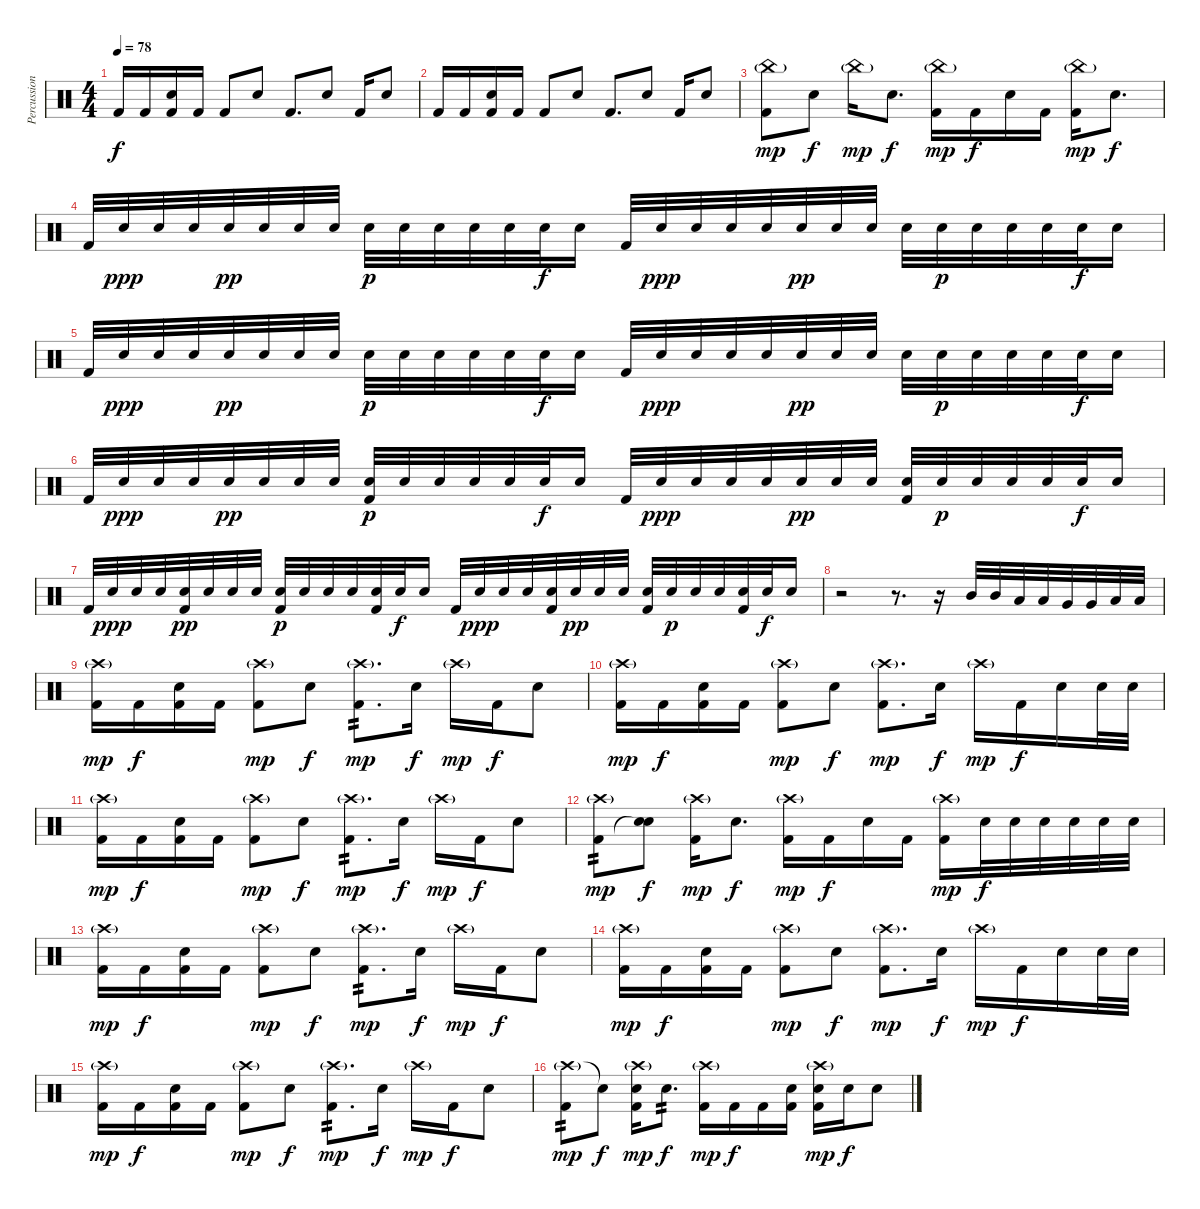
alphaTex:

\track ("Percussions" "Percussion") {instrument percussion}
\staff {score}
\articulation defaults
\ts (4 4)
\tempo 78
\clef neutral
\ks c "Kick (hit) 2".16{dy f} "Kick (hit) 2".16
("Snare (hit) 2" "Kick (hit) 2").16 "Kick (hit) 2".16 "Kick (hit) 2".8 "Snare (hit) 2".8 "Kick (hit) 2".8{d} "Snare (hit) 2".8 "Kick (hit) 2".16 "Snare (hit) 2".8 |
"Kick (hit) 2".16 "Kick (hit) 2".16 ("Snare (hit) 2" "Kick (hit) 2").16 "Kick (hit) 2".16 "Kick (hit) 2".8 "Snare (hit) 2".8 "Kick (hit) 2".8{d} "Snare (hit) 2".8 "Kick (hit) 2".16 "Snare (hit) 2".8 |
("China (hit)"{g} "Kick (hit) 2").8{dy mp} "Snare (hit) 2".8{dy f} "China (hit)"{g}.16{dy mp} "Snare (hit) 2".8{d dy f} ("China (hit)"{g} "Kick (hit) 2").16{dy mp} "Kick (hit) 2".16{dy f} "Snare (hit) 2".16 "Kick (hit) 2".16 ("China (hit)"{g} "Kick (hit) 2").16{dy mp} "Snare (hit) 2".8{d dy f} |
"Kick (hit) 2".32 "Snare (hit) 2".32{dy ppp} "Snare (hit) 2".32 "Snare (hit) 2".32 "Snare (hit) 2".32{dy pp} "Snare (hit) 2".32 "Snare (hit) 2".32 "Snare (hit) 2".32 "Snare (hit) 2".32{dy p} "Snare (hit) 2".32 "Snare (hit) 2".32 "Snare (hit) 2".32 "Snare (hit) 2".32 "Snare (hit) 2".32{dy f} "Snare (hit) 2".16 "Kick (hit) 2".32 "Snare (hit) 2".32{dy ppp} "Snare (hit) 2".32 "Snare (hit) 2".32 "Snare (hit) 2".32 "Snare (hit) 2".32{dy pp} "Snare (hit) 2".32 "Snare (hit) 2".32 "Snare (hit) 2".32 "Snare (hit) 2".32{dy p} "Snare (hit) 2".32 "Snare (hit) 2".32 "Snare (hit) 2".32 "Snare (hit) 2".32{dy f} "Snare (hit) 2".16 |
"Kick (hit) 2".32 "Snare (hit) 2".32{dy ppp} "Snare (hit) 2".32 "Snare (hit) 2".32 "Snare (hit) 2".32{dy pp} "Snare (hit) 2".32 "Snare (hit) 2".32 "Snare (hit) 2".32 "Snare (hit) 2".32{dy p} "Snare (hit) 2".32 "Snare (hit) 2".32 "Snare (hit) 2".32 "Snare (hit) 2".32 "Snare (hit) 2".32{dy f} "Snare (hit) 2".16 "Kick (hit) 2".32 "Snare (hit) 2".32{dy ppp} "Snare (hit) 2".32 "Snare (hit) 2".32 "Snare (hit) 2".32 "Snare (hit) 2".32{dy pp} "Snare (hit) 2".32 "Snare (hit) 2".32 "Snare (hit) 2".32 "Snare (hit) 2".32{dy p} "Snare (hit) 2".32 "Snare (hit) 2".32 "Snare (hit) 2".32 "Snare (hit) 2".32{dy f} "Snare (hit) 2".16 |
"Kick (hit) 2".32 "Snare (hit) 2".32{dy ppp} "Snare (hit) 2".32 "Snare (hit) 2".32 "Snare (hit) 2".32{dy pp} "Snare (hit) 2".32 "Snare (hit) 2".32 "Snare (hit) 2".32 ("Snare (hit) 2" "Kick (hit) 2").32{dy p} "Snare (hit) 2".32 "Snare (hit) 2".32 "Snare (hit) 2".32 "Snare (hit) 2".32 "Snare (hit) 2".32{dy f} "Snare (hit) 2".16 "Kick (hit) 2".32 "Snare (hit) 2".32{dy ppp} "Snare (hit) 2".32 "Snare (hit) 2".32 "Snare (hit) 2".32 "Snare (hit) 2".32{dy pp} "Snare (hit) 2".32 "Snare (hit) 2".32 ("Snare (hit) 2" "Kick (hit) 2").32 "Snare (hit) 2".32{dy p} "Snare (hit) 2".32 "Snare (hit) 2".32 "Snare (hit) 2".32 "Snare (hit) 2".32{dy f} "Snare (hit) 2".16 |
"Kick (hit) 2".32 "Snare (hit) 2".32{dy ppp} "Snare (hit) 2".32 "Snare (hit) 2".32 ("Snare (hit) 2" "Kick (hit) 2").32{dy pp} "Snare (hit) 2".32 "Snare (hit) 2".32 "Snare (hit) 2".32 ("Snare (hit) 2" "Kick (hit) 2").32{dy p} "Snare (hit) 2".32 "Snare (hit) 2".32 "Snare (hit) 2".32 ("Snare (hit) 2" "Kick (hit) 2").32 "Snare (hit) 2".32{dy f} "Snare (hit) 2".16 "Kick (hit) 2".32 "Snare (hit) 2".32{dy ppp} "Snare (hit) 2".32 "Snare (hit) 2".32 ("Snare (hit) 2" "Kick (hit) 2").32 "Snare (hit) 2".32{dy pp} "Snare (hit) 2".32 "Snare (hit) 2".32 ("Snare (hit) 2" "Kick (hit) 2").32 "Snare (hit) 2".32{dy p} "Snare (hit) 2".32 "Snare (hit) 2".32 ("Snare (hit) 2" "Kick (hit) 2").32 "Snare (hit) 2".32{dy f} "Snare (hit) 2".16 |
r.2 r.8{d} r.16 "Mid Tom (hit)".32 "Mid Tom (hit)".32 "Low Tom (hit)".32 "Low Tom (hit)".32 "Very Low Tom (hit)".32 "Very Low Tom (hit)".32 "Low Floor Tom (hit)".32 "Low Floor Tom (hit)".32 |
("Crash high (hit)"{g} "Kick (hit) 2").16{dy mp} "Kick (hit) 2".16{dy f} ("Snare (hit) 2" "Kick (hit) 2").16 "Kick (hit) 2".16 ("Crash high (hit)"{g} "Kick (hit) 2").8{dy mp} "Snare (hit) 2".8{dy f} ("Crash high (hit)"{g} "Kick (hit) 2").8{d tp 2 dy mp} "Snare (hit) 2".16{dy f} "Crash high (hit)"{g}.16{dy mp} "Kick (hit) 2".16{dy f} "Snare (hit) 2".8 |
("Crash high (hit)"{g} "Kick (hit) 2").16{dy mp} "Kick (hit) 2".16{dy f} ("Snare (hit) 2" "Kick (hit) 2").16 "Kick (hit) 2".16 ("Crash high (hit)"{g} "Kick (hit) 2").8{dy mp} "Snare (hit) 2".8{dy f} ("Crash high (hit)"{g} "Kick (hit) 2").8{d dy mp} "Snare (hit) 2".16{dy f} "Crash high (hit)"{g}.16{dy mp} "Kick (hit) 2".16{dy f} "Snare (hit) 2".16 "Snare (hit) 2".32 "Snare (hit) 2".32 |
("Crash high (hit)"{g} "Kick (hit) 2").16{dy mp} "Kick (hit) 2".16{dy f} ("Snare (hit) 2" "Kick (hit) 2").16 "Kick (hit) 2".16 ("Crash high (hit)"{g} "Kick (hit) 2").8{dy mp} "Snare (hit) 2".8{dy f} ("Crash high (hit)"{g} "Kick (hit) 2").8{d tp 2 dy mp} "Snare (hit) 2".16{dy f} "Crash high (hit)"{g}.16{dy mp} "Kick (hit) 2".16{dy f} "Snare (hit) 2".8 |
("Crash high (hit)"{g} "Kick (hit) 2").8{tp 2 dy mp} ("Snare (hit) 2" "Snare (hit)"{t}).8{dy f} ("Crash high (hit)"{g} "Kick (hit) 2").16{dy mp} "Snare (hit) 2".8{d dy f} ("Crash high (hit)"{g} "Kick (hit) 2").16{dy mp} "Kick (hit) 2".16{dy f} "Snare (hit) 2".16 "Kick (hit) 2".16 ("Crash high (hit)"{g} "Kick (hit) 2").16{dy mp} "Snare (hit) 2".32{dy f} "Snare (hit) 2".32 "Snare (hit) 2".32 "Snare (hit) 2".32 "Snare (hit) 2".32 "Snare (hit) 2".32 |
("Crash high (hit)"{g} "Kick (hit) 2").16{dy mp} "Kick (hit) 2".16{dy f} ("Snare (hit) 2" "Kick (hit) 2").16 "Kick (hit) 2".16 ("Crash high (hit)"{g} "Kick (hit) 2").8{dy mp} "Snare (hit) 2".8{dy f} ("Crash high (hit)"{g} "Kick (hit) 2").8{d tp 2 dy mp} "Snare (hit) 2".16{dy f} "Crash high (hit)"{g}.16{dy mp} "Kick (hit) 2".16{dy f} "Snare (hit) 2".8 |
("Crash high (hit)"{g} "Kick (hit) 2").16{dy mp} "Kick (hit) 2".16{dy f} ("Snare (hit) 2" "Kick (hit) 2").16 "Kick (hit) 2".16 ("Crash high (hit)"{g} "Kick (hit) 2").8{dy mp} "Snare (hit) 2".8{dy f} ("Crash high (hit)"{g} "Kick (hit) 2").8{d dy mp} "Snare (hit) 2".16{dy f} "Crash high (hit)"{g}.16{dy mp} "Kick (hit) 2".16{dy f} "Snare (hit) 2".16 "Snare (hit) 2".32 "Snare (hit) 2".32 |
("Crash high (hit)"{g} "Kick (hit) 2").16{dy mp} "Kick (hit) 2".16{dy f} ("Snare (hit) 2" "Kick (hit) 2").16 "Kick (hit) 2".16 ("Crash high (hit)"{g} "Kick (hit) 2").8{dy mp} "Snare (hit) 2".8{dy f} ("Crash high (hit)"{g} "Kick (hit) 2").8{d tp 2 dy mp} "Snare (hit) 2".16{dy f} "Crash high (hit)"{g}.16{dy mp} "Kick (hit) 2".16{dy f} "Snare (hit) 2".8 |
("Crash high (hit)"{g} "Kick (hit) 2").8{tp 2 dy mp} "Snare (hit)"{t}.8{dy f} ("Crash high (hit)"{g} "Snare (hit) 2" "Kick (hit) 2").16{dy mp} "Snare (hit) 2".8{d tp 2 dy f} ("Crash high (hit)"{g} "Kick (hit) 2").16{dy mp} "Kick (hit) 2".16{dy f} "Kick (hit) 2".16 ("Snare (hit) 2" "Kick (hit) 2").16 ("Crash high (hit)"{g} "Snare (hit) 2" "Kick (hit) 2").16{dy mp} "Snare (hit) 2".16{dy f} "Snare (hit) 2".8
